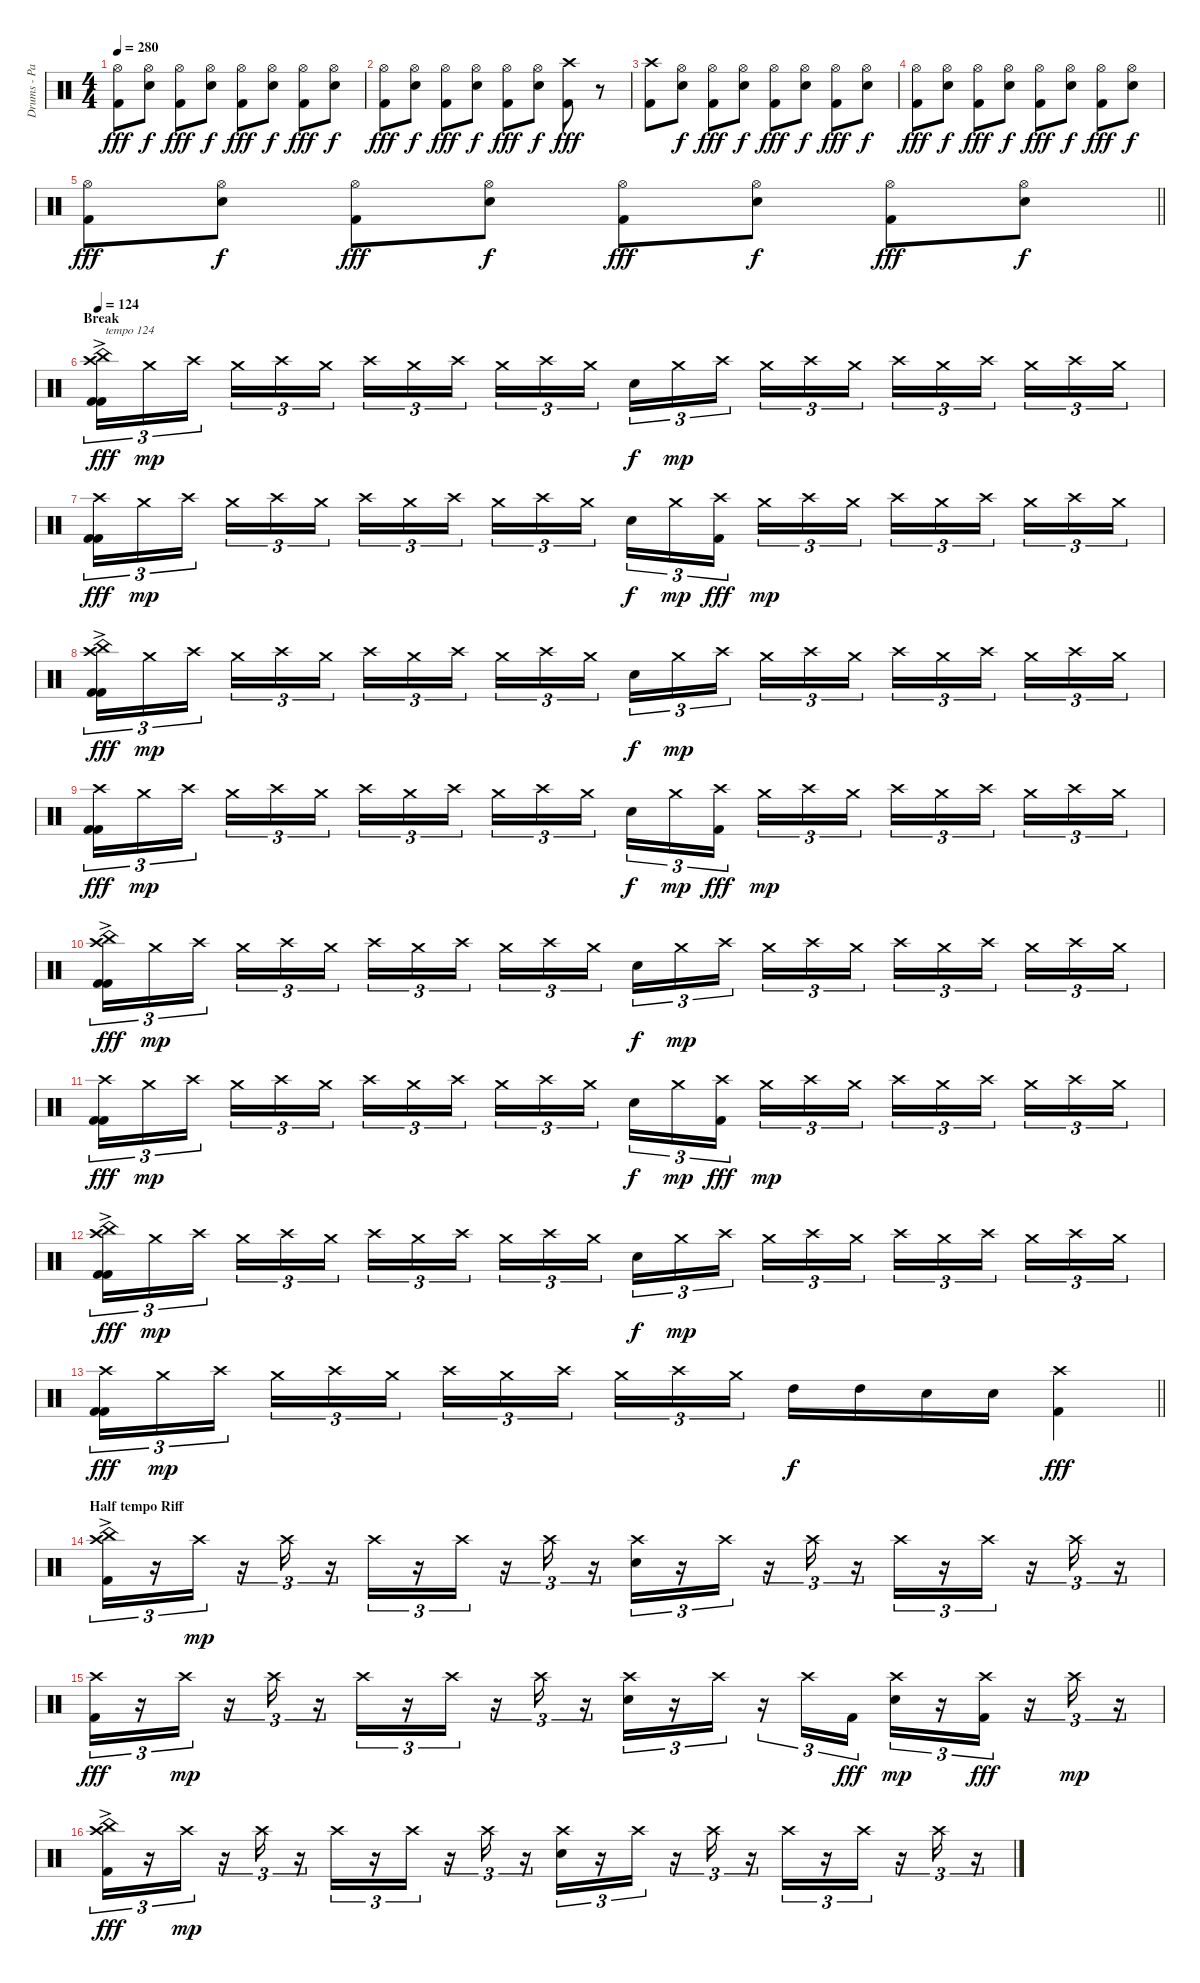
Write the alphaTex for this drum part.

\track ("Drums - Paul Mazurkiewicz" "Drums - Pa") {instrument percussion}
\staff {score}
\articulation defaults
\ts (4 4)
\tempo 280
\clef neutral
\ks c
("Hi-Hat (open)" "Kick (hit) 2").8{dy fff} ("Hi-Hat (open)" "Snare (hit) 2").8{dy f} ("Hi-Hat (open)" "Kick (hit) 2").8{dy fff} ("Hi-Hat (open)" "Snare (hit) 2").8{dy f} ("Hi-Hat (open)" "Kick (hit) 2").8{dy fff} ("Hi-Hat (open)" "Snare (hit) 2").8{dy f} ("Hi-Hat (open)" "Kick (hit) 2").8{dy fff} ("Hi-Hat (open)" "Snare (hit) 2").8{dy f} |
("Hi-Hat (open)" "Kick (hit) 2").8{dy fff} ("Hi-Hat (open)" "Snare (hit) 2").8{dy f} ("Hi-Hat (open)" "Kick (hit) 2").8{dy fff} ("Hi-Hat (open)" "Snare (hit) 2").8{dy f} ("Hi-Hat (open)" "Kick (hit) 2").8{dy fff} ("Hi-Hat (open)" "Snare (hit) 2").8{dy f} ("Crash high (hit)" "Kick (hit) 2").8{dy fff} r.8 |
("Crash high (hit)" "Kick (hit) 2").8 ("Hi-Hat (open)" "Snare (hit) 2").8{dy f} ("Hi-Hat (open)" "Kick (hit) 2").8{dy fff} ("Hi-Hat (open)" "Snare (hit) 2").8{dy f} ("Hi-Hat (open)" "Kick (hit) 2").8{dy fff} ("Hi-Hat (open)" "Snare (hit) 2").8{dy f} ("Hi-Hat (open)" "Kick (hit) 2").8{dy fff} ("Hi-Hat (open)" "Snare (hit) 2").8{dy f} |
("Hi-Hat (open)" "Kick (hit) 2").8{dy fff} ("Hi-Hat (open)" "Snare (hit) 2").8{dy f} ("Hi-Hat (open)" "Kick (hit) 2").8{dy fff} ("Hi-Hat (open)" "Snare (hit) 2").8{dy f} ("Hi-Hat (open)" "Kick (hit) 2").8{dy fff} ("Hi-Hat (open)" "Snare (hit) 2").8{dy f} ("Hi-Hat (open)" "Kick (hit) 2").8{dy fff} ("Hi-Hat (open)" "Snare (hit) 2").8{dy f} |
\barLineRight lightlight
("Hi-Hat (open)" "Kick (hit) 2").8{dy fff} ("Hi-Hat (open)" "Snare (hit) 2").8{dy f} ("Hi-Hat (open)" "Kick (hit) 2").8{dy fff} ("Hi-Hat (open)" "Snare (hit) 2").8{dy f} ("Hi-Hat (open)" "Kick (hit) 2").8{dy fff} ("Hi-Hat (open)" "Snare (hit) 2").8{dy f} ("Hi-Hat (open)" "Kick (hit) 2").8{dy fff} ("Hi-Hat (open)" "Snare (hit) 2").8{dy f} |
\section ("" "Break")
\tempo 124
("Crash high (hit)"{ac} "China (hit)" "Kick (hit) 2" "Kick (hit) 2").16{tu (3 2) txt "tempo 124" dy fff} "Crash medium (hit)".16{tu (3 2) dy mp} "Crash high (hit)".16{tu (3 2) beam splitsecondary} "Crash medium (hit)".16{tu (3 2)} "Crash high (hit)".16{tu (3 2)} "Crash medium (hit)".16{tu (3 2)} "Crash high (hit)".16{tu (3 2)} "Crash medium (hit)".16{tu (3 2)} "Crash high (hit)".16{tu (3 2) beam splitsecondary} "Crash medium (hit)".16{tu (3 2)} "Crash high (hit)".16{tu (3 2)} "Crash medium (hit)".16{tu (3 2)} "Snare (hit) 2".16{tu (3 2) dy f} "Crash medium (hit)".16{tu (3 2) dy mp} "Crash high (hit)".16{tu (3 2) beam splitsecondary} "Crash medium (hit)".16{tu (3 2)} "Crash high (hit)".16{tu (3 2)} "Crash medium (hit)".16{tu (3 2)} "Crash high (hit)".16{tu (3 2)} "Crash medium (hit)".16{tu (3 2)} "Crash high (hit)".16{tu (3 2) beam splitsecondary} "Crash medium (hit)".16{tu (3 2)} "Crash high (hit)".16{tu (3 2)} "Crash medium (hit)".16{tu (3 2)} |
("Crash high (hit)" "Kick (hit) 2" "Kick (hit) 2").16{tu (3 2) dy fff} "Crash medium (hit)".16{tu (3 2) dy mp} "Crash high (hit)".16{tu (3 2) beam splitsecondary} "Crash medium (hit)".16{tu (3 2)} "Crash high (hit)".16{tu (3 2)} "Crash medium (hit)".16{tu (3 2)} "Crash high (hit)".16{tu (3 2)} "Crash medium (hit)".16{tu (3 2)} "Crash high (hit)".16{tu (3 2) beam splitsecondary} "Crash medium (hit)".16{tu (3 2)} "Crash high (hit)".16{tu (3 2)} "Crash medium (hit)".16{tu (3 2)} "Snare (hit) 2".16{tu (3 2) dy f} "Crash medium (hit)".16{tu (3 2) dy mp} ("Crash high (hit)" "Kick (hit) 2").16{tu (3 2) dy fff beam splitsecondary} "Crash medium (hit)".16{tu (3 2) dy mp} "Crash high (hit)".16{tu (3 2)} "Crash medium (hit)".16{tu (3 2)} "Crash high (hit)".16{tu (3 2)} "Crash medium (hit)".16{tu (3 2)} "Crash high (hit)".16{tu (3 2) beam splitsecondary} "Crash medium (hit)".16{tu (3 2)} "Crash high (hit)".16{tu (3 2)} "Crash medium (hit)".16{tu (3 2)} |
("Crash high (hit)"{ac} "China (hit)" "Kick (hit) 2" "Kick (hit) 2").16{tu (3 2) dy fff} "Crash medium (hit)".16{tu (3 2) dy mp} "Crash high (hit)".16{tu (3 2) beam splitsecondary} "Crash medium (hit)".16{tu (3 2)} "Crash high (hit)".16{tu (3 2)} "Crash medium (hit)".16{tu (3 2)} "Crash high (hit)".16{tu (3 2)} "Crash medium (hit)".16{tu (3 2)} "Crash high (hit)".16{tu (3 2) beam splitsecondary} "Crash medium (hit)".16{tu (3 2)} "Crash high (hit)".16{tu (3 2)} "Crash medium (hit)".16{tu (3 2)} "Snare (hit) 2".16{tu (3 2) dy f} "Crash medium (hit)".16{tu (3 2) dy mp} "Crash high (hit)".16{tu (3 2) beam splitsecondary} "Crash medium (hit)".16{tu (3 2)} "Crash high (hit)".16{tu (3 2)} "Crash medium (hit)".16{tu (3 2)} "Crash high (hit)".16{tu (3 2)} "Crash medium (hit)".16{tu (3 2)} "Crash high (hit)".16{tu (3 2) beam splitsecondary} "Crash medium (hit)".16{tu (3 2)} "Crash high (hit)".16{tu (3 2)} "Crash medium (hit)".16{tu (3 2)} |
("Crash high (hit)" "Kick (hit) 2" "Kick (hit) 2").16{tu (3 2) dy fff} "Crash medium (hit)".16{tu (3 2) dy mp} "Crash high (hit)".16{tu (3 2) beam splitsecondary} "Crash medium (hit)".16{tu (3 2)} "Crash high (hit)".16{tu (3 2)} "Crash medium (hit)".16{tu (3 2)} "Crash high (hit)".16{tu (3 2)} "Crash medium (hit)".16{tu (3 2)} "Crash high (hit)".16{tu (3 2) beam splitsecondary} "Crash medium (hit)".16{tu (3 2)} "Crash high (hit)".16{tu (3 2)} "Crash medium (hit)".16{tu (3 2)} "Snare (hit) 2".16{tu (3 2) dy f} "Crash medium (hit)".16{tu (3 2) dy mp} ("Crash high (hit)" "Kick (hit) 2").16{tu (3 2) dy fff beam splitsecondary} "Crash medium (hit)".16{tu (3 2) dy mp} "Crash high (hit)".16{tu (3 2)} "Crash medium (hit)".16{tu (3 2)} "Crash high (hit)".16{tu (3 2)} "Crash medium (hit)".16{tu (3 2)} "Crash high (hit)".16{tu (3 2) beam splitsecondary} "Crash medium (hit)".16{tu (3 2)} "Crash high (hit)".16{tu (3 2)} "Crash medium (hit)".16{tu (3 2)} |
("Crash high (hit)"{ac} "China (hit)" "Kick (hit) 2" "Kick (hit) 2").16{tu (3 2) dy fff} "Crash medium (hit)".16{tu (3 2) dy mp} "Crash high (hit)".16{tu (3 2) beam splitsecondary} "Crash medium (hit)".16{tu (3 2)} "Crash high (hit)".16{tu (3 2)} "Crash medium (hit)".16{tu (3 2)} "Crash high (hit)".16{tu (3 2)} "Crash medium (hit)".16{tu (3 2)} "Crash high (hit)".16{tu (3 2) beam splitsecondary} "Crash medium (hit)".16{tu (3 2)} "Crash high (hit)".16{tu (3 2)} "Crash medium (hit)".16{tu (3 2)} "Snare (hit) 2".16{tu (3 2) dy f} "Crash medium (hit)".16{tu (3 2) dy mp} "Crash high (hit)".16{tu (3 2) beam splitsecondary} "Crash medium (hit)".16{tu (3 2)} "Crash high (hit)".16{tu (3 2)} "Crash medium (hit)".16{tu (3 2)} "Crash high (hit)".16{tu (3 2)} "Crash medium (hit)".16{tu (3 2)} "Crash high (hit)".16{tu (3 2) beam splitsecondary} "Crash medium (hit)".16{tu (3 2)} "Crash high (hit)".16{tu (3 2)} "Crash medium (hit)".16{tu (3 2)} |
("Crash high (hit)" "Kick (hit) 2" "Kick (hit) 2").16{tu (3 2) dy fff} "Crash medium (hit)".16{tu (3 2) dy mp} "Crash high (hit)".16{tu (3 2) beam splitsecondary} "Crash medium (hit)".16{tu (3 2)} "Crash high (hit)".16{tu (3 2)} "Crash medium (hit)".16{tu (3 2)} "Crash high (hit)".16{tu (3 2)} "Crash medium (hit)".16{tu (3 2)} "Crash high (hit)".16{tu (3 2) beam splitsecondary} "Crash medium (hit)".16{tu (3 2)} "Crash high (hit)".16{tu (3 2)} "Crash medium (hit)".16{tu (3 2)} "Snare (hit) 2".16{tu (3 2) dy f} "Crash medium (hit)".16{tu (3 2) dy mp} ("Crash high (hit)" "Kick (hit) 2").16{tu (3 2) dy fff beam splitsecondary} "Crash medium (hit)".16{tu (3 2) dy mp} "Crash high (hit)".16{tu (3 2)} "Crash medium (hit)".16{tu (3 2)} "Crash high (hit)".16{tu (3 2)} "Crash medium (hit)".16{tu (3 2)} "Crash high (hit)".16{tu (3 2) beam splitsecondary} "Crash medium (hit)".16{tu (3 2)} "Crash high (hit)".16{tu (3 2)} "Crash medium (hit)".16{tu (3 2)} |
("Crash high (hit)"{ac} "China (hit)" "Kick (hit) 2" "Kick (hit) 2").16{tu (3 2) dy fff} "Crash medium (hit)".16{tu (3 2) dy mp} "Crash high (hit)".16{tu (3 2) beam splitsecondary} "Crash medium (hit)".16{tu (3 2)} "Crash high (hit)".16{tu (3 2)} "Crash medium (hit)".16{tu (3 2)} "Crash high (hit)".16{tu (3 2)} "Crash medium (hit)".16{tu (3 2)} "Crash high (hit)".16{tu (3 2) beam splitsecondary} "Crash medium (hit)".16{tu (3 2)} "Crash high (hit)".16{tu (3 2)} "Crash medium (hit)".16{tu (3 2)} "Snare (hit) 2".16{tu (3 2) dy f} "Crash medium (hit)".16{tu (3 2) dy mp} "Crash high (hit)".16{tu (3 2) beam splitsecondary} "Crash medium (hit)".16{tu (3 2)} "Crash high (hit)".16{tu (3 2)} "Crash medium (hit)".16{tu (3 2)} "Crash high (hit)".16{tu (3 2)} "Crash medium (hit)".16{tu (3 2)} "Crash high (hit)".16{tu (3 2) beam splitsecondary} "Crash medium (hit)".16{tu (3 2)} "Crash high (hit)".16{tu (3 2)} "Crash medium (hit)".16{tu (3 2)} |
\barLineRight lightlight
("Crash high (hit)" "Kick (hit) 2" "Kick (hit) 2").16{tu (3 2) dy fff} "Crash medium (hit)".16{tu (3 2) dy mp} "Crash high (hit)".16{tu (3 2) beam splitsecondary} "Crash medium (hit)".16{tu (3 2)} "Crash high (hit)".16{tu (3 2)} "Crash medium (hit)".16{tu (3 2)} "Crash high (hit)".16{tu (3 2)} "Crash medium (hit)".16{tu (3 2)} "Crash high (hit)".16{tu (3 2) beam splitsecondary} "Crash medium (hit)".16{tu (3 2)} "Crash high (hit)".16{tu (3 2)} "Crash medium (hit)".16{tu (3 2)} "High Tom (hit)".16{dy f} "High Tom (hit)".16 "Snare (hit) 2".16 "Snare (hit) 2".16 ("Crash high (hit)" "Kick (hit) 2").4{dy fff} |
\section ("" "Half tempo Riff")
("Crash high (hit)"{ac} "China (hit)" "Kick (hit) 2").16{tu (3 2)} r.16{tu (3 2)} "Crash high (hit)".16{tu (3 2) dy mp} r.16{tu (3 2)} "Crash high (hit)".16{tu (3 2)} r.16{tu (3 2)} "Crash high (hit)".16{tu (3 2)} r.16{tu (3 2)} "Crash high (hit)".16{tu (3 2)} r.16{tu (3 2)} "Crash high (hit)".16{tu (3 2)} r.16{tu (3 2)} ("Crash high (hit)" "Snare (hit) 2").16{tu (3 2)} r.16{tu (3 2)} "Crash high (hit)".16{tu (3 2)} r.16{tu (3 2)} "Crash high (hit)".16{tu (3 2)} r.16{tu (3 2)} "Crash high (hit)".16{tu (3 2)} r.16{tu (3 2)} "Crash high (hit)".16{tu (3 2)} r.16{tu (3 2)} "Crash high (hit)".16{tu (3 2)} r.16{tu (3 2)} |
("Crash high (hit)" "Kick (hit) 2").16{tu (3 2) dy fff} r.16{tu (3 2)} "Crash high (hit)".16{tu (3 2) dy mp} r.16{tu (3 2)} "Crash high (hit)".16{tu (3 2)} r.16{tu (3 2)} "Crash high (hit)".16{tu (3 2)} r.16{tu (3 2)} "Crash high (hit)".16{tu (3 2)} r.16{tu (3 2)} "Crash high (hit)".16{tu (3 2)} r.16{tu (3 2)} ("Crash high (hit)" "Snare (hit) 2").16{tu (3 2)} r.16{tu (3 2)} "Crash high (hit)".16{tu (3 2)} r.16{tu (3 2)} "Crash high (hit)".16{tu (3 2)} "Kick (hit) 2".16{tu (3 2) dy fff} ("Crash high (hit)" "Snare (hit) 2").16{tu (3 2) dy mp} r.16{tu (3 2)} ("Crash high (hit)" "Kick (hit) 2").16{tu (3 2) dy fff} r.16{tu (3 2)} "Crash high (hit)".16{tu (3 2) dy mp} r.16{tu (3 2)} |
("Crash high (hit)"{ac} "China (hit)" "Kick (hit) 2").16{tu (3 2) dy fff} r.16{tu (3 2)} "Crash high (hit)".16{tu (3 2) dy mp} r.16{tu (3 2)} "Crash high (hit)".16{tu (3 2)} r.16{tu (3 2)} "Crash high (hit)".16{tu (3 2)} r.16{tu (3 2)} "Crash high (hit)".16{tu (3 2)} r.16{tu (3 2)} "Crash high (hit)".16{tu (3 2)} r.16{tu (3 2)} ("Crash high (hit)" "Snare (hit) 2").16{tu (3 2)} r.16{tu (3 2)} "Crash high (hit)".16{tu (3 2)} r.16{tu (3 2)} "Crash high (hit)".16{tu (3 2)} r.16{tu (3 2)} "Crash high (hit)".16{tu (3 2)} r.16{tu (3 2)} "Crash high (hit)".16{tu (3 2)} r.16{tu (3 2)} "Crash high (hit)".16{tu (3 2)} r.16{tu (3 2)}
